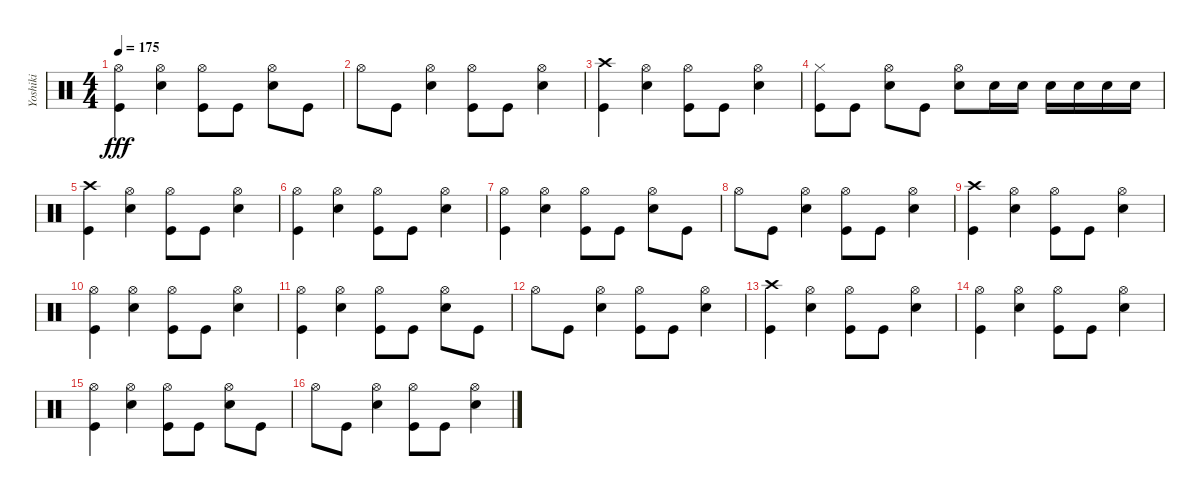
\track ("Yoshiki" "Yoshiki") {instrument percussion}
\staff {score}
\articulation defaults
\ts (4 4)
\tempo 175
\clef neutral
\ks c
("Hi-Hat (open)" "Kick (hit)").4{dy fff} ("Hi-Hat (open)" "Snare (hit) 2").4 ("Hi-Hat (open)" "Kick (hit)").8 "Kick (hit)".8 ("Hi-Hat (open)" "Snare (hit) 2").8 "Kick (hit)".8 |
"Hi-Hat (open)".8 "Kick (hit)".8 ("Hi-Hat (open)" "Snare (hit) 2").4 ("Hi-Hat (open)" "Kick (hit)").8 "Kick (hit)".8 ("Hi-Hat (open)" "Snare (hit) 2").4 |
("Crash high (hit)" "Kick (hit)").4 ("Hi-Hat (open)" "Snare (hit) 2").4 ("Hi-Hat (open)" "Kick (hit)").8 "Kick (hit)".8 ("Hi-Hat (open)" "Snare (hit) 2").4 |
("Hi-Hat (closed)" "Kick (hit)").8 "Kick (hit)".8 ("Hi-Hat (open)" "Snare (hit) 2").8 "Kick (hit)".8 ("Hi-Hat (open)" "Snare (hit) 2").8 "Snare (hit) 2".16 "Snare (hit) 2".16 "Snare (hit) 2".16 "Snare (hit) 2".16 "Snare (hit) 2".16 "Snare (hit) 2".16 |
("Crash high (hit)" "Kick (hit)").4 ("Hi-Hat (open)" "Snare (hit) 2").4 ("Hi-Hat (open)" "Kick (hit)").8 "Kick (hit)".8 ("Hi-Hat (open)" "Snare (hit) 2").4 |
("Hi-Hat (open)" "Kick (hit)").4 ("Hi-Hat (open)" "Snare (hit) 2").4 ("Hi-Hat (open)" "Kick (hit)").8 "Kick (hit)".8 ("Hi-Hat (open)" "Snare (hit) 2").4 |
("Hi-Hat (open)" "Kick (hit)").4 ("Hi-Hat (open)" "Snare (hit) 2").4 ("Hi-Hat (open)" "Kick (hit)").8 "Kick (hit)".8 ("Hi-Hat (open)" "Snare (hit) 2").8 "Kick (hit)".8 |
"Hi-Hat (open)".8 "Kick (hit)".8 ("Hi-Hat (open)" "Snare (hit) 2").4 ("Hi-Hat (open)" "Kick (hit)").8 "Kick (hit)".8 ("Hi-Hat (open)" "Snare (hit) 2").4 |
("Crash high (hit)" "Kick (hit)").4 ("Hi-Hat (open)" "Snare (hit) 2").4 ("Hi-Hat (open)" "Kick (hit)").8 "Kick (hit)".8 ("Hi-Hat (open)" "Snare (hit) 2").4 |
("Hi-Hat (open)" "Kick (hit)").4 ("Hi-Hat (open)" "Snare (hit) 2").4 ("Hi-Hat (open)" "Kick (hit)").8 "Kick (hit)".8 ("Hi-Hat (open)" "Snare (hit) 2").4 |
("Hi-Hat (open)" "Kick (hit)").4 ("Hi-Hat (open)" "Snare (hit) 2").4 ("Hi-Hat (open)" "Kick (hit)").8 "Kick (hit)".8 ("Hi-Hat (open)" "Snare (hit) 2").8 "Kick (hit)".8 |
"Hi-Hat (open)".8 "Kick (hit)".8 ("Hi-Hat (open)" "Snare (hit) 2").4 ("Hi-Hat (open)" "Kick (hit)").8 "Kick (hit)".8 ("Hi-Hat (open)" "Snare (hit) 2").4 |
("Crash high (hit)" "Kick (hit)").4 ("Hi-Hat (open)" "Snare (hit) 2").4 ("Hi-Hat (open)" "Kick (hit)").8 "Kick (hit)".8 ("Hi-Hat (open)" "Snare (hit) 2").4 |
("Hi-Hat (open)" "Kick (hit)").4 ("Hi-Hat (open)" "Snare (hit) 2").4 ("Hi-Hat (open)" "Kick (hit)").8 "Kick (hit)".8 ("Hi-Hat (open)" "Snare (hit) 2").4 |
("Hi-Hat (open)" "Kick (hit)").4 ("Hi-Hat (open)" "Snare (hit) 2").4 ("Hi-Hat (open)" "Kick (hit)").8 "Kick (hit)".8 ("Hi-Hat (open)" "Snare (hit) 2").8 "Kick (hit)".8 |
"Hi-Hat (open)".8 "Kick (hit)".8 ("Hi-Hat (open)" "Snare (hit) 2").4 ("Hi-Hat (open)" "Kick (hit)").8 "Kick (hit)".8 ("Hi-Hat (open)" "Snare (hit) 2").4
